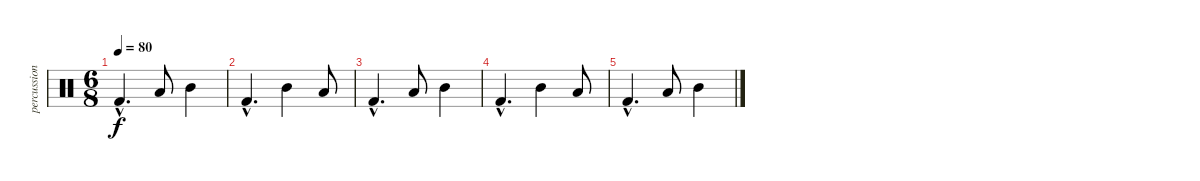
\track ("percussions" "percussion") {instrument percussion}
\staff {score}
\articulation defaults
\ts (6 8)
\tempo 80
\clef neutral
\ks c "Kick (hit) 2"{hac}.4{d dy f} "Low Tom (hit)".8 "Mid Tom (hit)".4
|
"Kick (hit) 2"{hac}.4{d} "Mid Tom (hit)".4 "Low Tom (hit)".8 |
"Kick (hit) 2"{hac}.4{d} "Low Tom (hit)".8 "Mid Tom (hit)".4 |
"Kick (hit) 2"{hac}.4{d} "Mid Tom (hit)".4 "Low Tom (hit)".8 |
"Kick (hit) 2"{hac}.4{d} "Low Tom (hit)".8 "Mid Tom (hit)".4
